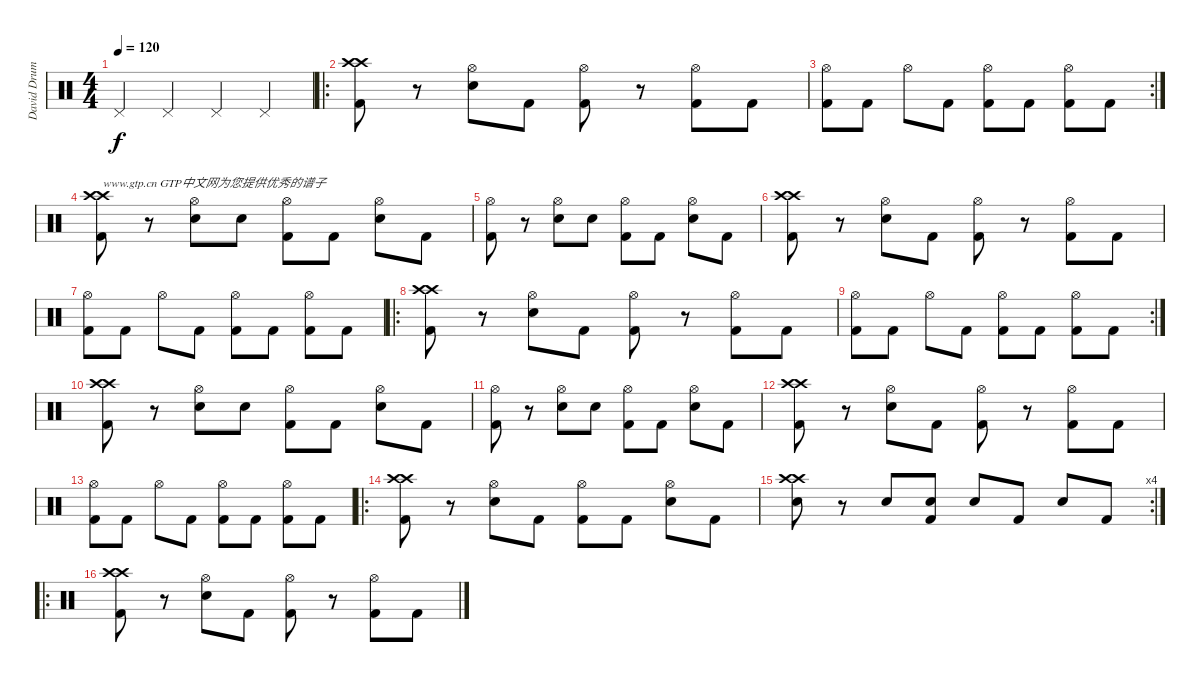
\track ("David Drums" "David Drum") {instrument percussion}
\staff {score}
\articulation defaults
\ts (4 4)
\tempo 120
\clef neutral
\ks c "Pedal Hi-Hat (hit)".4{dy f} "Pedal Hi-Hat (hit)".4 "Pedal Hi-Hat (hit)".4 "Pedal Hi-Hat (hit)".4
|
\ro
("Crash high (hit)" "Crash high (hit)" "Kick (hit) 2").8 r.8 ("Hi-Hat (open)" "Snare (hit) 2").8 "Kick (hit) 2".8 ("Hi-Hat (open)" "Kick (hit) 2").8 r.8 ("Hi-Hat (open)" "Kick (hit) 2").8 "Kick (hit) 2".8 |
\rc 2
("Hi-Hat (open)" "Kick (hit) 2").8 "Kick (hit) 2".8 "Hi-Hat (open)".8 "Kick (hit) 2".8 ("Hi-Hat (open)" "Kick (hit) 2").8 "Kick (hit) 2".8 ("Hi-Hat (open)" "Kick (hit) 2").8 "Kick (hit) 2".8 |
("Crash high (hit)" "Crash high (hit)" "Kick (hit) 2").8{txt "www.gtp.cn GTP中文网为您提供优秀的谱子"} r.8 ("Hi-Hat (open)" "Snare (hit) 2").8 "Snare (hit) 2".8 ("Hi-Hat (open)" "Kick (hit) 2").8 "Kick (hit) 2".8 ("Hi-Hat (open)" "Snare (hit) 2").8 "Kick (hit) 2".8 |
("Hi-Hat (open)" "Kick (hit) 2").8 r.8 ("Hi-Hat (open)" "Snare (hit) 2").8 "Snare (hit) 2".8 ("Hi-Hat (open)" "Kick (hit) 2").8 "Kick (hit) 2".8 ("Hi-Hat (open)" "Snare (hit) 2").8 "Kick (hit) 2".8 |
("Crash high (hit)" "Crash high (hit)" "Kick (hit) 2").8 r.8 ("Hi-Hat (open)" "Snare (hit) 2").8 "Kick (hit) 2".8 ("Hi-Hat (open)" "Kick (hit) 2").8 r.8 ("Hi-Hat (open)" "Kick (hit) 2").8 "Kick (hit) 2".8 |
("Hi-Hat (open)" "Kick (hit) 2").8 "Kick (hit) 2".8 "Hi-Hat (open)".8 "Kick (hit) 2".8 ("Hi-Hat (open)" "Kick (hit) 2").8 "Kick (hit) 2".8 ("Hi-Hat (open)" "Kick (hit) 2").8 "Kick (hit) 2".8 |
\ro
("Crash high (hit)" "Crash high (hit)" "Kick (hit) 2").8 r.8 ("Hi-Hat (open)" "Snare (hit) 2").8 "Kick (hit) 2".8 ("Hi-Hat (open)" "Kick (hit) 2").8 r.8 ("Hi-Hat (open)" "Kick (hit) 2").8 "Kick (hit) 2".8 |
\rc 2
("Hi-Hat (open)" "Kick (hit) 2").8 "Kick (hit) 2".8 "Hi-Hat (open)".8 "Kick (hit) 2".8 ("Hi-Hat (open)" "Kick (hit) 2").8 "Kick (hit) 2".8 ("Hi-Hat (open)" "Kick (hit) 2").8 "Kick (hit) 2".8 |
("Crash high (hit)" "Crash high (hit)" "Kick (hit) 2").8 r.8 ("Hi-Hat (open)" "Snare (hit) 2").8 "Snare (hit) 2".8 ("Hi-Hat (open)" "Kick (hit) 2").8 "Kick (hit) 2".8 ("Hi-Hat (open)" "Snare (hit) 2").8 "Kick (hit) 2".8 |
("Hi-Hat (open)" "Kick (hit) 2").8 r.8 ("Hi-Hat (open)" "Snare (hit) 2").8 "Snare (hit) 2".8 ("Hi-Hat (open)" "Kick (hit) 2").8 "Kick (hit) 2".8 ("Hi-Hat (open)" "Snare (hit) 2").8 "Kick (hit) 2".8 |
("Crash high (hit)" "Crash high (hit)" "Kick (hit) 2").8 r.8 ("Hi-Hat (open)" "Snare (hit) 2").8 "Kick (hit) 2".8 ("Hi-Hat (open)" "Kick (hit) 2").8 r.8 ("Hi-Hat (open)" "Kick (hit) 2").8 "Kick (hit) 2".8 |
("Hi-Hat (open)" "Kick (hit) 2").8 "Kick (hit) 2".8 "Hi-Hat (open)".8 "Kick (hit) 2".8 ("Hi-Hat (open)" "Kick (hit) 2").8 "Kick (hit) 2".8 ("Hi-Hat (open)" "Kick (hit) 2").8 "Kick (hit) 2".8 |
\ro
("Crash high (hit)" "Crash high (hit)" "Kick (hit) 2").8 r.8 ("Hi-Hat (open)" "Snare (hit) 2").8 "Kick (hit) 2".8 ("Hi-Hat (open)" "Kick (hit) 2").8 "Kick (hit) 2".8 ("Hi-Hat (open)" "Snare (hit) 2").8 "Kick (hit) 2".8 |
\rc 4
("Crash high (hit)" "Crash high (hit)" "Snare (hit) 2").8 r.8 "Snare (hit) 2".8 ("Snare (hit) 2" "Kick (hit) 2").8 "Snare (hit) 2".8 "Kick (hit) 2".8 "Snare (hit) 2".8 "Kick (hit) 2".8 |
\ro
("Crash high (hit)" "Crash high (hit)" "Kick (hit) 2").8 r.8 ("Hi-Hat (open)" "Snare (hit) 2").8 "Kick (hit) 2".8 ("Hi-Hat (open)" "Kick (hit) 2").8 r.8 ("Hi-Hat (open)" "Kick (hit) 2").8 "Kick (hit) 2".8
